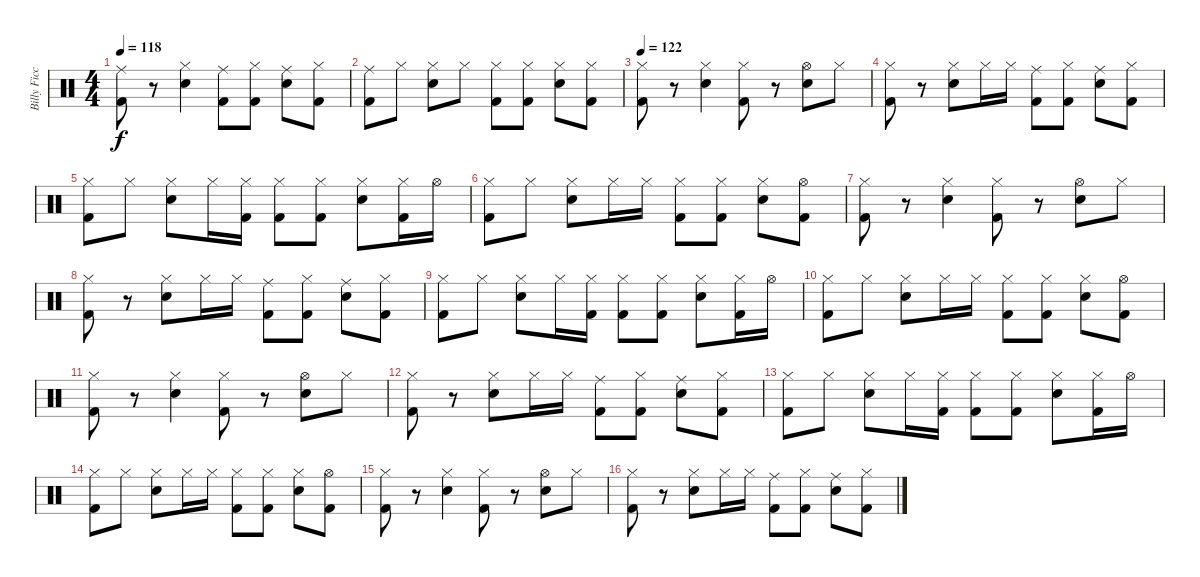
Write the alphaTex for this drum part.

\track ("Billy Ficca" "Billy Ficc") {instrument percussion}
\staff {score}
\articulation defaults
\ts (4 4)
\tempo 118
\clef neutral
\ks c
("Ride (middle)" "Kick (hit) 2").8{dy f} r.8 ("Hi-Hat (closed)" "Snare (hit) 2").4 ("Ride (middle)" "Kick (hit) 2").8 ("Hi-Hat (closed)" "Kick (hit) 2").8 ("Ride (middle)" "Snare (hit) 2").8 ("Hi-Hat (closed)" "Kick (hit) 2").8 |
("Ride (middle)" "Kick (hit) 2").8 "Hi-Hat (closed)".8 ("Hi-Hat (closed)" "Snare (hit) 2").8 "Hi-Hat (closed)".8 ("Hi-Hat (closed)" "Kick (hit) 2").8 ("Hi-Hat (closed)" "Kick (hit) 2").8 ("Hi-Hat (closed)" "Snare (hit) 2").8 ("Hi-Hat (closed)" "Kick (hit) 2").8 |
\tempo 122
("Hi-Hat (closed)" "Kick (hit) 2").8 r.8 ("Hi-Hat (closed)" "Snare (hit) 2").4 ("Hi-Hat (closed)" "Kick (hit) 2").8 r.8 ("Hi-Hat (open)" "Snare (hit) 2").8 "Hi-Hat (closed)".8 |
("Hi-Hat (closed)" "Kick (hit) 2").8 r.8 ("Hi-Hat (closed)" "Snare (hit) 2").8 "Hi-Hat (closed)".16 "Hi-Hat (closed)".16 ("Ride (middle)" "Kick (hit) 2").8 ("Hi-Hat (closed)" "Kick (hit) 2").8 ("Ride (middle)" "Snare (hit) 2").8 ("Hi-Hat (closed)" "Kick (hit) 2").8 |
("Hi-Hat (closed)" "Kick (hit) 2").8 "Hi-Hat (closed)".8 ("Hi-Hat (closed)" "Snare (hit) 2").8 "Hi-Hat (closed)".16 ("Hi-Hat (closed)" "Kick (hit) 2").16 ("Hi-Hat (closed)" "Kick (hit) 2").8 ("Hi-Hat (closed)" "Kick (hit) 2").8 ("Hi-Hat (closed)" "Snare (hit) 2").8 ("Hi-Hat (closed)" "Kick (hit) 2").16 "Hi-Hat (open)".16 |
("Hi-Hat (closed)" "Kick (hit) 2").8 "Hi-Hat (closed)".8 ("Hi-Hat (closed)" "Snare (hit) 2").8 "Hi-Hat (closed)".16 "Hi-Hat (closed)".16 ("Hi-Hat (closed)" "Kick (hit) 2").8 ("Hi-Hat (closed)" "Kick (hit) 2").8 ("Hi-Hat (closed)" "Snare (hit) 2").8 ("Hi-Hat (open)" "Kick (hit) 2").8 |
("Hi-Hat (closed)" "Kick (hit) 2").8 r.8 ("Hi-Hat (closed)" "Snare (hit) 2").4 ("Hi-Hat (closed)" "Kick (hit) 2").8 r.8 ("Hi-Hat (open)" "Snare (hit) 2").8 "Hi-Hat (closed)".8 |
("Hi-Hat (closed)" "Kick (hit) 2").8 r.8 ("Hi-Hat (closed)" "Snare (hit) 2").8 "Hi-Hat (closed)".16 "Hi-Hat (closed)".16 ("Ride (middle)" "Kick (hit) 2").8 ("Hi-Hat (closed)" "Kick (hit) 2").8 ("Ride (middle)" "Snare (hit) 2").8 ("Hi-Hat (closed)" "Kick (hit) 2").8 |
("Hi-Hat (closed)" "Kick (hit) 2").8 "Hi-Hat (closed)".8 ("Hi-Hat (closed)" "Snare (hit) 2").8 "Hi-Hat (closed)".16 ("Hi-Hat (closed)" "Kick (hit) 2").16 ("Hi-Hat (closed)" "Kick (hit) 2").8 ("Hi-Hat (closed)" "Kick (hit) 2").8 ("Hi-Hat (closed)" "Snare (hit) 2").8 ("Hi-Hat (closed)" "Kick (hit) 2").16 "Hi-Hat (open)".16 |
("Hi-Hat (closed)" "Kick (hit) 2").8 "Hi-Hat (closed)".8 ("Hi-Hat (closed)" "Snare (hit) 2").8 "Hi-Hat (closed)".16 "Hi-Hat (closed)".16 ("Hi-Hat (closed)" "Kick (hit) 2").8 ("Hi-Hat (closed)" "Kick (hit) 2").8 ("Hi-Hat (closed)" "Snare (hit) 2").8 ("Hi-Hat (open)" "Kick (hit) 2").8 |
("Hi-Hat (closed)" "Kick (hit) 2").8 r.8 ("Hi-Hat (closed)" "Snare (hit) 2").4 ("Hi-Hat (closed)" "Kick (hit) 2").8 r.8 ("Hi-Hat (open)" "Snare (hit) 2").8 "Hi-Hat (closed)".8 |
("Hi-Hat (closed)" "Kick (hit) 2").8 r.8 ("Hi-Hat (closed)" "Snare (hit) 2").8 "Hi-Hat (closed)".16 "Hi-Hat (closed)".16 ("Ride (middle)" "Kick (hit) 2").8 ("Hi-Hat (closed)" "Kick (hit) 2").8 ("Ride (middle)" "Snare (hit) 2").8 ("Hi-Hat (closed)" "Kick (hit) 2").8 |
("Hi-Hat (closed)" "Kick (hit) 2").8 "Hi-Hat (closed)".8 ("Hi-Hat (closed)" "Snare (hit) 2").8 "Hi-Hat (closed)".16 ("Hi-Hat (closed)" "Kick (hit) 2").16 ("Hi-Hat (closed)" "Kick (hit) 2").8 ("Hi-Hat (closed)" "Kick (hit) 2").8 ("Hi-Hat (closed)" "Snare (hit) 2").8 ("Hi-Hat (closed)" "Kick (hit) 2").16 "Hi-Hat (open)".16 |
("Hi-Hat (closed)" "Kick (hit) 2").8 "Hi-Hat (closed)".8 ("Hi-Hat (closed)" "Snare (hit) 2").8 "Hi-Hat (closed)".16 "Hi-Hat (closed)".16 ("Hi-Hat (closed)" "Kick (hit) 2").8 ("Hi-Hat (closed)" "Kick (hit) 2").8 ("Hi-Hat (closed)" "Snare (hit) 2").8 ("Hi-Hat (open)" "Kick (hit) 2").8 |
("Hi-Hat (closed)" "Kick (hit) 2").8 r.8 ("Hi-Hat (closed)" "Snare (hit) 2").4 ("Hi-Hat (closed)" "Kick (hit) 2").8 r.8 ("Hi-Hat (open)" "Snare (hit) 2").8 "Hi-Hat (closed)".8 |
("Hi-Hat (closed)" "Kick (hit) 2").8 r.8 ("Hi-Hat (closed)" "Snare (hit) 2").8 "Hi-Hat (closed)".16 "Hi-Hat (closed)".16 ("Ride (middle)" "Kick (hit) 2").8 ("Hi-Hat (closed)" "Kick (hit) 2").8 ("Ride (middle)" "Snare (hit) 2").8 ("Hi-Hat (closed)" "Kick (hit) 2").8
